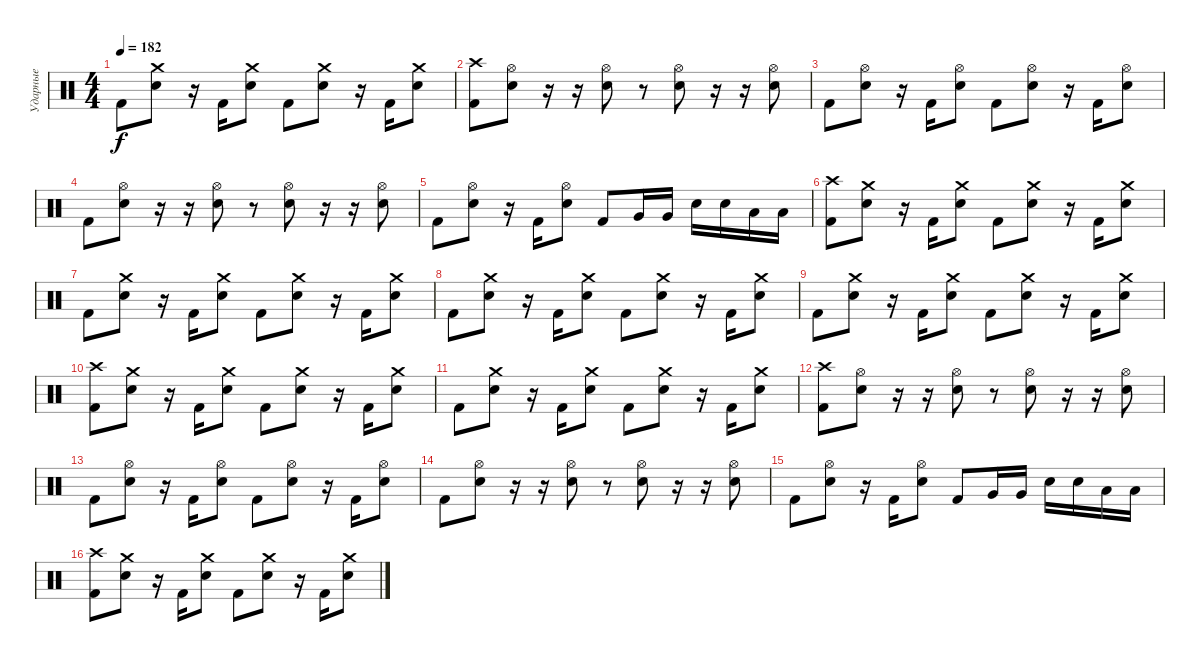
\track ("Ударные" "Ударные") {instrument percussion}
\staff {score}
\articulation defaults
\ts (4 4)
\tempo 182
\clef neutral
\ks c "Kick (hit) 2".8{dy f}
("Crash medium (hit)" "Electric Snare (hit)").8 r.16 "Kick (hit) 2".16 ("Crash medium (hit)" "Electric Snare (hit)").8 "Kick (hit) 2".8 ("Crash medium (hit)" "Electric Snare (hit)").8 r.16 "Kick (hit) 2".16 ("Crash medium (hit)" "Electric Snare (hit)").8 |
("Crash high (hit)" "Kick (hit) 2").8 ("Hi-Hat (open)" "Electric Snare (hit)").8 r.16 r.16 ("Hi-Hat (open)" "Electric Snare (hit)").8 r.8 ("Hi-Hat (open)" "Electric Snare (hit)").8 r.16 r.16 ("Hi-Hat (open)" "Electric Snare (hit)").8 |
"Kick (hit) 2".8 ("Hi-Hat (open)" "Electric Snare (hit)").8 r.16 "Kick (hit) 2".16 ("Hi-Hat (open)" "Electric Snare (hit)").8 "Kick (hit) 2".8 ("Hi-Hat (open)" "Electric Snare (hit)").8 r.16 "Kick (hit) 2".16 ("Hi-Hat (open)" "Electric Snare (hit)").8 |
"Kick (hit) 2".8 ("Hi-Hat (open)" "Electric Snare (hit)").8 r.16 r.16 ("Hi-Hat (open)" "Electric Snare (hit)").8 r.8 ("Hi-Hat (open)" "Electric Snare (hit)").8 r.16 r.16 ("Hi-Hat (open)" "Electric Snare (hit)").8 |
"Kick (hit) 2".8 ("Hi-Hat (open)" "Electric Snare (hit)").8 r.16 "Kick (hit) 2".16 ("Hi-Hat (open)" "Electric Snare (hit)").8 "Kick (hit) 2".8 "Very Low Tom (hit)".16 "Very Low Tom (hit)".16 "Electric Snare (hit)".16 "Electric Snare (hit)".16 "Low Floor Tom (hit)".16 "Low Floor Tom (hit)".16 |
("Crash high (hit)" "Kick (hit) 2").8 ("Crash medium (hit)" "Electric Snare (hit)").8 r.16 "Kick (hit) 2".16 ("Crash medium (hit)" "Electric Snare (hit)").8 "Kick (hit) 2".8 ("Crash medium (hit)" "Electric Snare (hit)").8 r.16 "Kick (hit) 2".16 ("Crash medium (hit)" "Electric Snare (hit)").8 |
"Kick (hit) 2".8 ("Crash medium (hit)" "Electric Snare (hit)").8 r.16 "Kick (hit) 2".16 ("Crash medium (hit)" "Electric Snare (hit)").8 "Kick (hit) 2".8 ("Crash medium (hit)" "Electric Snare (hit)").8 r.16 "Kick (hit) 2".16 ("Crash medium (hit)" "Electric Snare (hit)").8 |
"Kick (hit) 2".8 ("Crash medium (hit)" "Electric Snare (hit)").8 r.16 "Kick (hit) 2".16 ("Crash medium (hit)" "Electric Snare (hit)").8 "Kick (hit) 2".8 ("Crash medium (hit)" "Electric Snare (hit)").8 r.16 "Kick (hit) 2".16 ("Crash medium (hit)" "Electric Snare (hit)").8 |
"Kick (hit) 2".8 ("Crash medium (hit)" "Electric Snare (hit)").8 r.16 "Kick (hit) 2".16 ("Crash medium (hit)" "Electric Snare (hit)").8 "Kick (hit) 2".8 ("Crash medium (hit)" "Electric Snare (hit)").8 r.16 "Kick (hit) 2".16 ("Crash medium (hit)" "Electric Snare (hit)").8 |
("Crash high (hit)" "Kick (hit) 2").8 ("Crash medium (hit)" "Electric Snare (hit)").8 r.16 "Kick (hit) 2".16 ("Crash medium (hit)" "Electric Snare (hit)").8 "Kick (hit) 2".8 ("Crash medium (hit)" "Electric Snare (hit)").8 r.16 "Kick (hit) 2".16 ("Crash medium (hit)" "Electric Snare (hit)").8 |
"Kick (hit) 2".8 ("Crash medium (hit)" "Electric Snare (hit)").8 r.16 "Kick (hit) 2".16 ("Crash medium (hit)" "Electric Snare (hit)").8 "Kick (hit) 2".8 ("Crash medium (hit)" "Electric Snare (hit)").8 r.16 "Kick (hit) 2".16 ("Crash medium (hit)" "Electric Snare (hit)").8 |
("Crash high (hit)" "Kick (hit) 2").8 ("Hi-Hat (open)" "Electric Snare (hit)").8 r.16 r.16 ("Hi-Hat (open)" "Electric Snare (hit)").8 r.8 ("Hi-Hat (open)" "Electric Snare (hit)").8 r.16 r.16 ("Hi-Hat (open)" "Electric Snare (hit)").8 |
"Kick (hit) 2".8 ("Hi-Hat (open)" "Electric Snare (hit)").8 r.16 "Kick (hit) 2".16 ("Hi-Hat (open)" "Electric Snare (hit)").8 "Kick (hit) 2".8 ("Hi-Hat (open)" "Electric Snare (hit)").8 r.16 "Kick (hit) 2".16 ("Hi-Hat (open)" "Electric Snare (hit)").8 |
"Kick (hit) 2".8 ("Hi-Hat (open)" "Electric Snare (hit)").8 r.16 r.16 ("Hi-Hat (open)" "Electric Snare (hit)").8 r.8 ("Hi-Hat (open)" "Electric Snare (hit)").8 r.16 r.16 ("Hi-Hat (open)" "Electric Snare (hit)").8 |
"Kick (hit) 2".8 ("Hi-Hat (open)" "Electric Snare (hit)").8 r.16 "Kick (hit) 2".16 ("Hi-Hat (open)" "Electric Snare (hit)").8 "Kick (hit) 2".8 "Very Low Tom (hit)".16 "Very Low Tom (hit)".16 "Electric Snare (hit)".16 "Electric Snare (hit)".16 "Low Floor Tom (hit)".16 "Low Floor Tom (hit)".16 |
("Crash high (hit)" "Kick (hit) 2").8 ("Crash medium (hit)" "Electric Snare (hit)").8 r.16 "Kick (hit) 2".16 ("Crash medium (hit)" "Electric Snare (hit)").8 "Kick (hit) 2".8 ("Crash medium (hit)" "Electric Snare (hit)").8 r.16 "Kick (hit) 2".16 ("Crash medium (hit)" "Electric Snare (hit)").8
